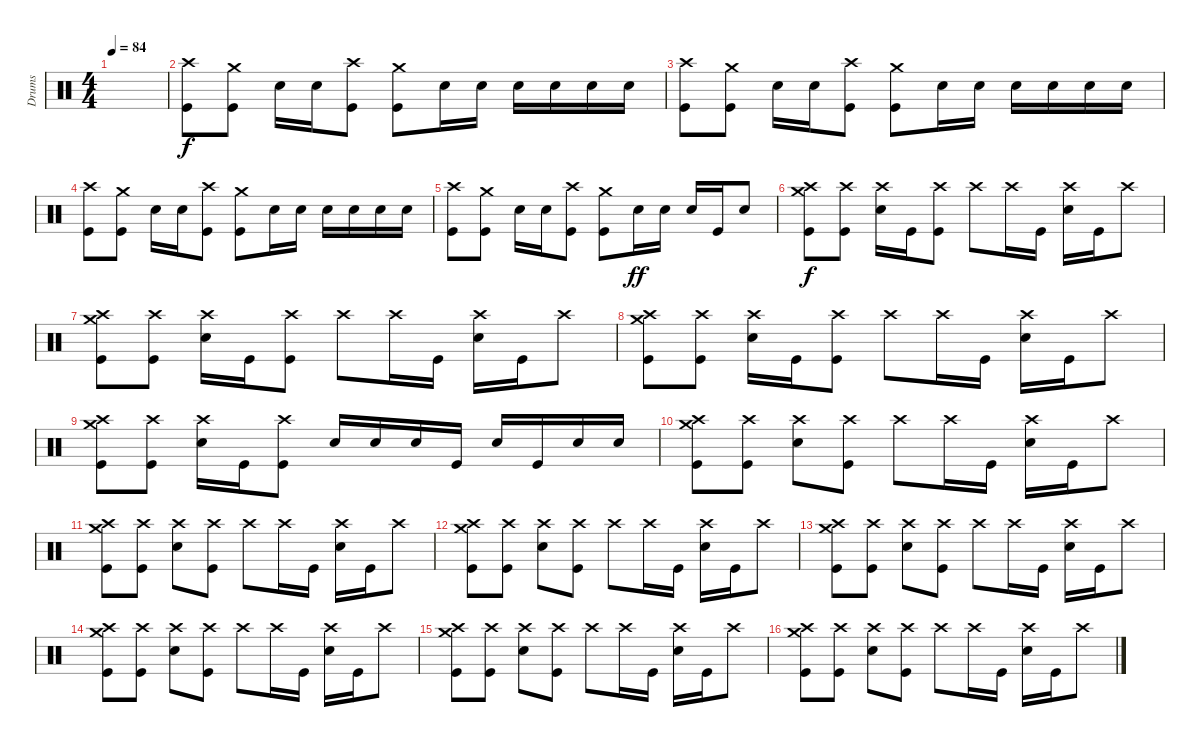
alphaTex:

\track ("Drums" "Drums") {instrument percussion}
\staff {score}
\articulation defaults
\ts (4 4)
\tempo 84
\clef neutral
\ks c
|
("Crash high (hit)" "Kick (hit)").8{dy f} ("Crash medium (hit)" "Kick (hit)").8 "Snare (hit) 2".16 "Snare (hit) 2".16 ("Crash high (hit)" "Kick (hit)").8 ("Crash medium (hit)" "Kick (hit)").8 "Snare (hit) 2".16 "Snare (hit) 2".16 "Snare (hit) 2".16 "Snare (hit) 2".16 "Snare (hit) 2".16 "Snare (hit) 2".16 |
("Crash high (hit)" "Kick (hit)").8 ("Crash medium (hit)" "Kick (hit)").8 "Snare (hit) 2".16 "Snare (hit) 2".16 ("Crash high (hit)" "Kick (hit)").8 ("Crash medium (hit)" "Kick (hit)").8 "Snare (hit) 2".16 "Snare (hit) 2".16 "Snare (hit) 2".16 "Snare (hit) 2".16 "Snare (hit) 2".16 "Snare (hit) 2".16 |
("Crash high (hit)" "Kick (hit)").8 ("Crash medium (hit)" "Kick (hit)").8 "Snare (hit) 2".16 "Snare (hit) 2".16 ("Crash high (hit)" "Kick (hit)").8 ("Crash medium (hit)" "Kick (hit)").8 "Snare (hit) 2".16 "Snare (hit) 2".16 "Snare (hit) 2".16 "Snare (hit) 2".16 "Snare (hit) 2".16 "Snare (hit) 2".16 |
("Crash high (hit)" "Kick (hit)").8 ("Crash medium (hit)" "Kick (hit)").8 "Snare (hit) 2".16 "Snare (hit) 2".16 ("Crash high (hit)" "Kick (hit)").8 ("Crash medium (hit)" "Kick (hit)").8 "Snare (hit) 2".16{dy ff} "Snare (hit) 2".16 "Snare (hit) 2".16 "Kick (hit)".16 "Snare (hit) 2".8 |
("Crash medium (hit)" "Crash high (hit)" "Kick (hit)").8{dy f} ("Crash high (hit)" "Kick (hit)").8 ("Crash high (hit)" "Snare (hit) 2").16 "Kick (hit)".16 ("Crash high (hit)" "Kick (hit)").8 "Crash high (hit)".8 "Crash high (hit)".16 "Kick (hit)".16 ("Crash high (hit)" "Snare (hit) 2").16 "Kick (hit)".16 "Crash high (hit)".8 |
("Crash medium (hit)" "Crash high (hit)" "Kick (hit)").8 ("Crash high (hit)" "Kick (hit)").8 ("Crash high (hit)" "Snare (hit) 2").16 "Kick (hit)".16 ("Crash high (hit)" "Kick (hit)").8 "Crash high (hit)".8 "Crash high (hit)".16 "Kick (hit)".16 ("Crash high (hit)" "Snare (hit) 2").16 "Kick (hit)".16 "Crash high (hit)".8 |
("Crash medium (hit)" "Crash high (hit)" "Kick (hit)").8 ("Crash high (hit)" "Kick (hit)").8 ("Crash high (hit)" "Snare (hit) 2").16 "Kick (hit)".16 ("Crash high (hit)" "Kick (hit)").8 "Crash high (hit)".8 "Crash high (hit)".16 "Kick (hit)".16 ("Crash high (hit)" "Snare (hit) 2").16 "Kick (hit)".16 "Crash high (hit)".8 |
("Crash medium (hit)" "Crash high (hit)" "Kick (hit)").8 ("Crash high (hit)" "Kick (hit)").8 ("Crash high (hit)" "Snare (hit) 2").16 "Kick (hit)".16 ("Crash high (hit)" "Kick (hit)").8 "Snare (hit) 2".16 "Snare (hit) 2".16 "Snare (hit) 2".16 "Kick (hit)".16 "Snare (hit) 2".16 "Kick (hit)".16 "Snare (hit) 2".16 "Snare (hit) 2".16 |
("Crash medium (hit)" "Crash high (hit)" "Kick (hit)").8 ("Crash high (hit)" "Kick (hit)").8 ("Crash high (hit)" "Snare (hit) 2").8 ("Crash high (hit)" "Kick (hit)").8 "Crash high (hit)".8 "Crash high (hit)".16 "Kick (hit)".16 ("Crash high (hit)" "Snare (hit) 2").16 "Kick (hit)".16 "Crash high (hit)".8 |
("Crash medium (hit)" "Crash high (hit)" "Kick (hit)").8 ("Crash high (hit)" "Kick (hit)").8 ("Crash high (hit)" "Snare (hit) 2").8 ("Crash high (hit)" "Kick (hit)").8 "Crash high (hit)".8 "Crash high (hit)".16 "Kick (hit)".16 ("Crash high (hit)" "Snare (hit) 2").16 "Kick (hit)".16 "Crash high (hit)".8 |
("Crash medium (hit)" "Crash high (hit)" "Kick (hit)").8 ("Crash high (hit)" "Kick (hit)").8 ("Crash high (hit)" "Snare (hit) 2").8 ("Crash high (hit)" "Kick (hit)").8 "Crash high (hit)".8 "Crash high (hit)".16 "Kick (hit)".16 ("Crash high (hit)" "Snare (hit) 2").16 "Kick (hit)".16 "Crash high (hit)".8 |
("Crash medium (hit)" "Crash high (hit)" "Kick (hit)").8 ("Crash high (hit)" "Kick (hit)").8 ("Crash high (hit)" "Snare (hit) 2").8 ("Crash high (hit)" "Kick (hit)").8 "Crash high (hit)".8 "Crash high (hit)".16 "Kick (hit)".16 ("Crash high (hit)" "Snare (hit) 2").16 "Kick (hit)".16 "Crash high (hit)".8 |
("Crash medium (hit)" "Crash high (hit)" "Kick (hit)").8 ("Crash high (hit)" "Kick (hit)").8 ("Crash high (hit)" "Snare (hit) 2").8 ("Crash high (hit)" "Kick (hit)").8 "Crash high (hit)".8 "Crash high (hit)".16 "Kick (hit)".16 ("Crash high (hit)" "Snare (hit) 2").16 "Kick (hit)".16 "Crash high (hit)".8 |
("Crash medium (hit)" "Crash high (hit)" "Kick (hit)").8 ("Crash high (hit)" "Kick (hit)").8 ("Crash high (hit)" "Snare (hit) 2").8 ("Crash high (hit)" "Kick (hit)").8 "Crash high (hit)".8 "Crash high (hit)".16 "Kick (hit)".16 ("Crash high (hit)" "Snare (hit) 2").16 "Kick (hit)".16 "Crash high (hit)".8 |
("Crash medium (hit)" "Crash high (hit)" "Kick (hit)").8 ("Crash high (hit)" "Kick (hit)").8 ("Crash high (hit)" "Snare (hit) 2").8 ("Crash high (hit)" "Kick (hit)").8 "Crash high (hit)".8 "Crash high (hit)".16 "Kick (hit)".16 ("Crash high (hit)" "Snare (hit) 2").16 "Kick (hit)".16 "Crash high (hit)".8
